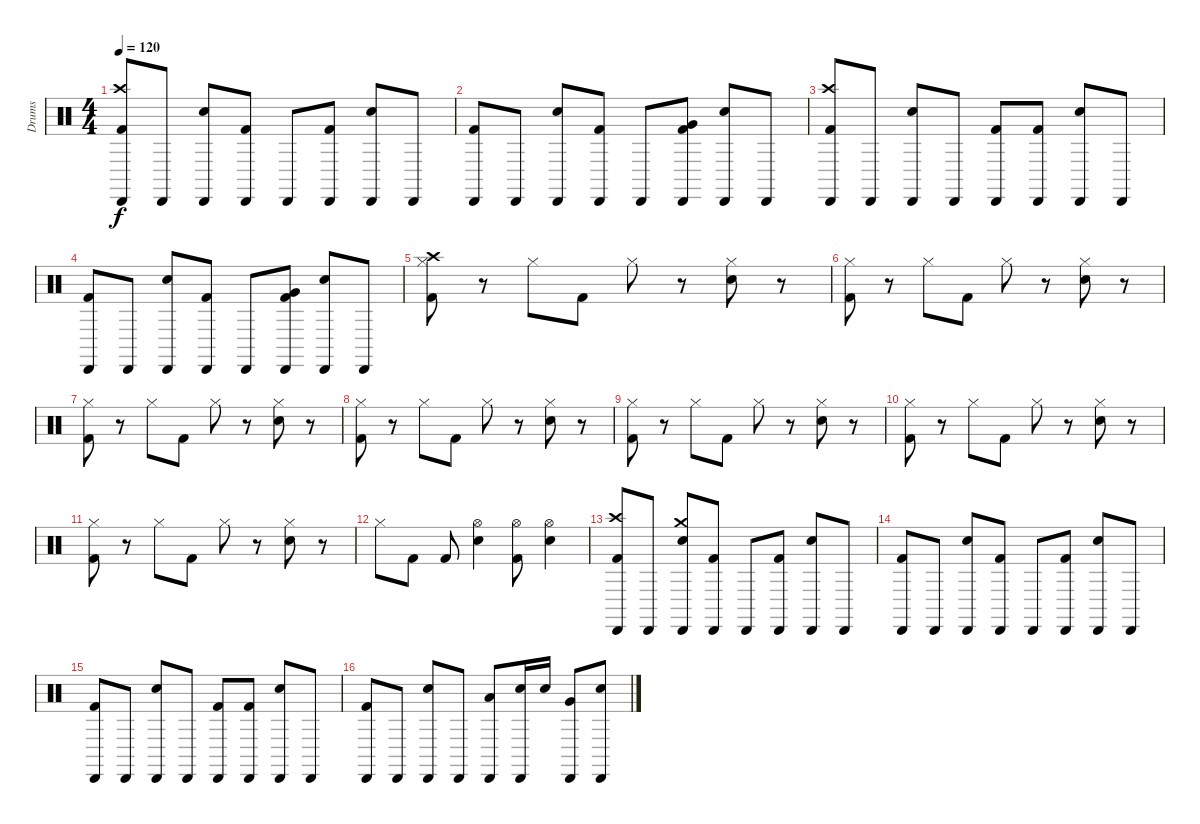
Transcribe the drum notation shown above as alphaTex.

\track ("Drums" "Drums") {instrument percussion}
\staff {score}
\articulation defaults
\ts (4 4)
\tempo 120
\clef neutral
\ks c
("Cabasa (hit)" "Crash high (hit)" "Kick (hit) 2").8{dy f} "Cabasa (hit)".8 ("Cabasa (hit)" "Electric Snare (hit)").8 ("Cabasa (hit)" "Kick (hit) 2").8 "Cabasa (hit)".8 ("Cabasa (hit)" "Kick (hit) 2").8 ("Cabasa (hit)" "Electric Snare (hit)").8 "Cabasa (hit)".8 |
("Cabasa (hit)" "Kick (hit) 2").8 "Cabasa (hit)".8 ("Cabasa (hit)" "Electric Snare (hit)").8 ("Cabasa (hit)" "Kick (hit) 2").8 "Cabasa (hit)".8 ("Cabasa (hit)" "Very Low Tom (hit)" "Kick (hit) 2").8 ("Cabasa (hit)" "Electric Snare (hit)").8 "Cabasa (hit)".8 |
("Cabasa (hit)" "Crash high (hit)" "Kick (hit) 2").8 "Cabasa (hit)".8 ("Cabasa (hit)" "Electric Snare (hit)").8 "Cabasa (hit)".8 ("Cabasa (hit)" "Kick (hit) 2").8 ("Cabasa (hit)" "Kick (hit) 2").8 ("Cabasa (hit)" "Electric Snare (hit)").8 "Cabasa (hit)".8 |
("Cabasa (hit)" "Kick (hit) 2").8 "Cabasa (hit)".8 ("Cabasa (hit)" "Electric Snare (hit)").8 ("Cabasa (hit)" "Kick (hit) 2").8 "Cabasa (hit)".8 ("Cabasa (hit)" "Very Low Tom (hit)" "Kick (hit) 2").8 ("Cabasa (hit)" "Electric Snare (hit)").8 "Cabasa (hit)".8 |
("Hi-Hat (closed)" "Crash high (hit)" "Kick (hit) 2").8 r.8 "Hi-Hat (closed)".8 "Kick (hit) 2".8 "Hi-Hat (closed)".8 r.8 ("Hi-Hat (closed)" "Electric Snare (hit)").8 r.8 |
("Hi-Hat (closed)" "Kick (hit) 2").8 r.8 "Hi-Hat (closed)".8 "Kick (hit) 2".8 "Hi-Hat (closed)".8 r.8 ("Hi-Hat (closed)" "Electric Snare (hit)").8 r.8 |
("Hi-Hat (closed)" "Kick (hit) 2").8 r.8 "Hi-Hat (closed)".8 "Kick (hit) 2".8 "Hi-Hat (closed)".8 r.8 ("Hi-Hat (closed)" "Electric Snare (hit)").8 r.8 |
("Hi-Hat (closed)" "Kick (hit) 2").8 r.8 "Hi-Hat (closed)".8 "Kick (hit) 2".8 "Hi-Hat (closed)".8 r.8 ("Hi-Hat (closed)" "Electric Snare (hit)").8 r.8 |
("Hi-Hat (closed)" "Kick (hit) 2").8 r.8 "Hi-Hat (closed)".8 "Kick (hit) 2".8 "Hi-Hat (closed)".8 r.8 ("Hi-Hat (closed)" "Electric Snare (hit)").8 r.8 |
("Hi-Hat (closed)" "Kick (hit) 2").8 r.8 "Hi-Hat (closed)".8 "Kick (hit) 2".8 "Hi-Hat (closed)".8 r.8 ("Hi-Hat (closed)" "Electric Snare (hit)").8 r.8 |
("Hi-Hat (closed)" "Kick (hit) 2").8 r.8 "Hi-Hat (closed)".8 "Kick (hit) 2".8 "Hi-Hat (closed)".8 r.8 ("Hi-Hat (closed)" "Electric Snare (hit)").8 r.8 |
"Hi-Hat (closed)".8 "Kick (hit) 2".8 "Kick (hit) 2".8 ("Hi-Hat (open)" "Electric Snare (hit)").4 ("Hi-Hat (open)" "Kick (hit) 2").8 ("Hi-Hat (open)" "Electric Snare (hit)").4 |
("Cabasa (hit)" "Crash high (hit)" "Kick (hit) 2").8 "Cabasa (hit)".8 ("Cabasa (hit)" "Crash medium (hit)" "Electric Snare (hit)").8 ("Cabasa (hit)" "Kick (hit) 2").8 "Cabasa (hit)".8 ("Cabasa (hit)" "Kick (hit) 2").8 ("Cabasa (hit)" "Electric Snare (hit)").8 "Cabasa (hit)".8 |
("Cabasa (hit)" "Kick (hit) 2").8 "Cabasa (hit)".8 ("Cabasa (hit)" "Electric Snare (hit)").8 ("Cabasa (hit)" "Kick (hit) 2").8 "Cabasa (hit)".8 ("Cabasa (hit)" "Kick (hit) 2").8 ("Cabasa (hit)" "Electric Snare (hit)").8 "Cabasa (hit)".8 |
("Cabasa (hit)" "Kick (hit) 2").8 "Cabasa (hit)".8 ("Cabasa (hit)" "Electric Snare (hit)").8 "Cabasa (hit)".8 ("Cabasa (hit)" "Kick (hit) 2").8 ("Cabasa (hit)" "Kick (hit) 2").8 ("Cabasa (hit)" "Electric Snare (hit)").8 "Cabasa (hit)".8 |
("Cabasa (hit)" "Kick (hit) 2").8 "Cabasa (hit)".8 ("Cabasa (hit)" "Electric Snare (hit)").8 "Cabasa (hit)".8 ("Cabasa (hit)" "Low Tom (hit)").8 ("Cabasa (hit)" "Electric Snare (hit)").16 "Electric Snare (hit)".16 ("Cabasa (hit)" "Very Low Tom (hit)").8 ("Cabasa (hit)" "Electric Snare (hit)").8
